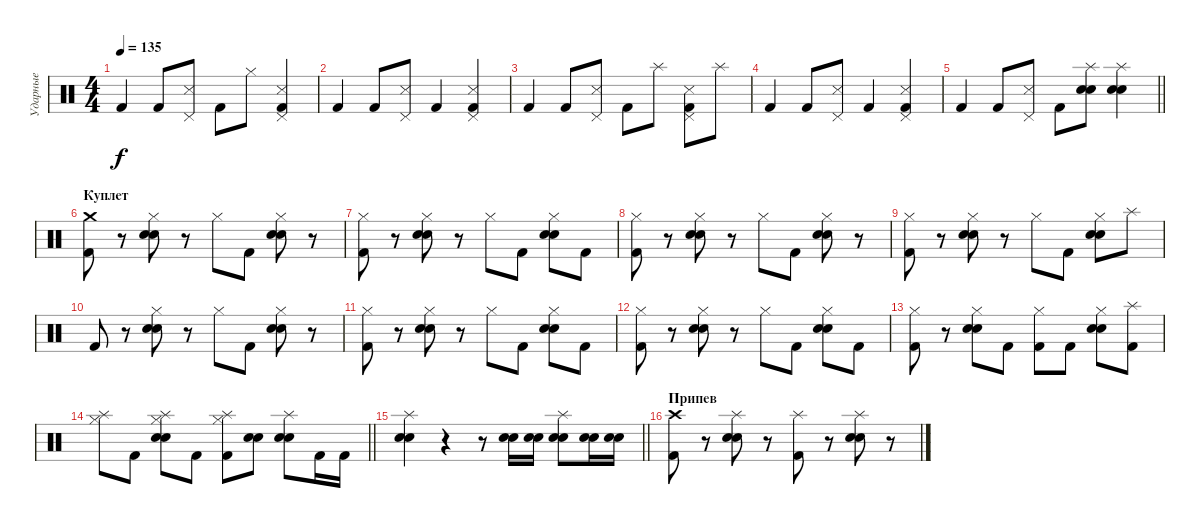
\track ("Ударные" "Ударные") {instrument percussion}
\staff {score}
\articulation defaults
\ts (4 4)
\tempo 135
\clef neutral
\ks c "Kick (hit) 2".4{dy f} "Kick (hit) 2".8
("Pedal Hi-Hat (hit)" "Metronome (hit)").8 "Kick (hit) 2".8 "Hi-Hat (closed)".8 ("Pedal Hi-Hat (hit)" "Metronome (hit)" "Kick (hit) 2").4 |
"Kick (hit) 2".4 "Kick (hit) 2".8 ("Pedal Hi-Hat (hit)" "Metronome (hit)").8 "Kick (hit) 2".4 ("Pedal Hi-Hat (hit)" "Metronome (hit)" "Kick (hit) 2").4 |
"Kick (hit) 2".4 "Kick (hit) 2".8 ("Pedal Hi-Hat (hit)" "Metronome (hit)").8 "Kick (hit) 2".8 "Splash (hit)".8 ("Pedal Hi-Hat (hit)" "Metronome (hit)" "Kick (hit) 2").8 "Splash (hit)".8 |
"Kick (hit) 2".4 "Kick (hit) 2".8 ("Pedal Hi-Hat (hit)" "Metronome (hit)").8 "Kick (hit) 2".4 ("Pedal Hi-Hat (hit)" "Metronome (hit)" "Kick (hit) 2").4 |
\barLineRight lightlight "Kick (hit) 2".4 "Kick (hit) 2".8
("Pedal Hi-Hat (hit)" "Metronome (hit)").8 "Kick (hit) 2".8 ("Splash (hit)" "Electric Snare (hit)" "Snare (hit) 2").8 ("Splash (hit)" "Electric Snare (hit)" "Snare (hit) 2").4 |
\section ("" "Куплет")
("Crash medium (hit)" "Kick (hit) 2").8 r.8 ("Hi-Hat (closed)" "Electric Snare (hit)" "Snare (hit) 2").8 r.8 "Hi-Hat (closed)".8 "Kick (hit) 2".8 ("Hi-Hat (closed)" "Electric Snare (hit)" "Snare (hit) 2").8 r.8 |
("Hi-Hat (closed)" "Kick (hit) 2").8 r.8 ("Hi-Hat (closed)" "Electric Snare (hit)" "Snare (hit) 2").8 r.8 "Hi-Hat (closed)".8 "Kick (hit) 2".8 ("Hi-Hat (closed)" "Electric Snare (hit)" "Snare (hit) 2").8 "Kick (hit) 2".8 |
("Hi-Hat (closed)" "Kick (hit) 2").8 r.8 ("Hi-Hat (closed)" "Electric Snare (hit)" "Snare (hit) 2").8 r.8 "Hi-Hat (closed)".8 "Kick (hit) 2".8 ("Hi-Hat (closed)" "Electric Snare (hit)" "Snare (hit) 2").8 r.8 |
("Hi-Hat (closed)" "Kick (hit) 2").8 r.8 ("Hi-Hat (closed)" "Electric Snare (hit)" "Snare (hit) 2").8 r.8 "Hi-Hat (closed)".8 "Kick (hit) 2".8 ("Hi-Hat (closed)" "Electric Snare (hit)" "Snare (hit) 2").8 "Splash (hit)".8 |
"Kick (hit) 2".8 r.8 ("Hi-Hat (closed)" "Electric Snare (hit)" "Snare (hit) 2").8 r.8 "Hi-Hat (closed)".8 "Kick (hit) 2".8 ("Hi-Hat (closed)" "Electric Snare (hit)" "Snare (hit) 2").8 r.8 |
("Hi-Hat (closed)" "Kick (hit) 2").8 r.8 ("Hi-Hat (closed)" "Electric Snare (hit)" "Snare (hit) 2").8 r.8 "Hi-Hat (closed)".8 "Kick (hit) 2".8 ("Hi-Hat (closed)" "Electric Snare (hit)" "Snare (hit) 2").8 "Kick (hit) 2".8 |
("Hi-Hat (closed)" "Kick (hit) 2").8 r.8 ("Hi-Hat (closed)" "Electric Snare (hit)" "Snare (hit) 2").8 r.8 "Hi-Hat (closed)".8 "Kick (hit) 2".8 ("Hi-Hat (closed)" "Electric Snare (hit)" "Snare (hit) 2").8 "Kick (hit) 2".8 |
("Hi-Hat (closed)" "Kick (hit) 2").8 r.8 ("Hi-Hat (closed)" "Electric Snare (hit)" "Snare (hit) 2").8 "Kick (hit) 2".8 ("Hi-Hat (closed)" "Kick (hit) 2").8 "Kick (hit) 2".8 ("Hi-Hat (closed)" "Electric Snare (hit)" "Snare (hit) 2").8 ("Splash (hit)" "Kick (hit) 2").8 |
\barLineRight lightlight
("Splash (hit)" "Hi-Hat (closed)").8 "Kick (hit) 2".8 ("Splash (hit)" "Hi-Hat (closed)" "Electric Snare (hit)" "Snare (hit) 2").8 "Kick (hit) 2".8 ("Splash (hit)" "Hi-Hat (closed)" "Kick (hit) 2").8 ("Electric Snare (hit)" "Snare (hit) 2").8 ("Splash (hit)" "Electric Snare (hit)" "Snare (hit) 2").8 "Kick (hit) 2".16 "Kick (hit) 2".16 |
\barLineRight lightlight
("Splash (hit)" "Electric Snare (hit)" "Snare (hit) 2").4 r.4 r.8 ("Electric Snare (hit)" "Snare (hit) 2").16 ("Electric Snare (hit)" "Snare (hit) 2").16 ("Splash (hit)" "Electric Snare (hit)" "Snare (hit) 2").8 ("Electric Snare (hit)" "Snare (hit) 2").16 ("Electric Snare (hit)" "Snare (hit) 2").16 |
\section ("" "Припев")
("Crash high (hit)" "Kick (hit) 2").8 r.8 ("Splash (hit)" "Electric Snare (hit)" "Snare (hit) 2").8 r.8 ("Splash (hit)" "Kick (hit) 2").8 r.8 ("Splash (hit)" "Electric Snare (hit)" "Snare (hit) 2").8 r.8
